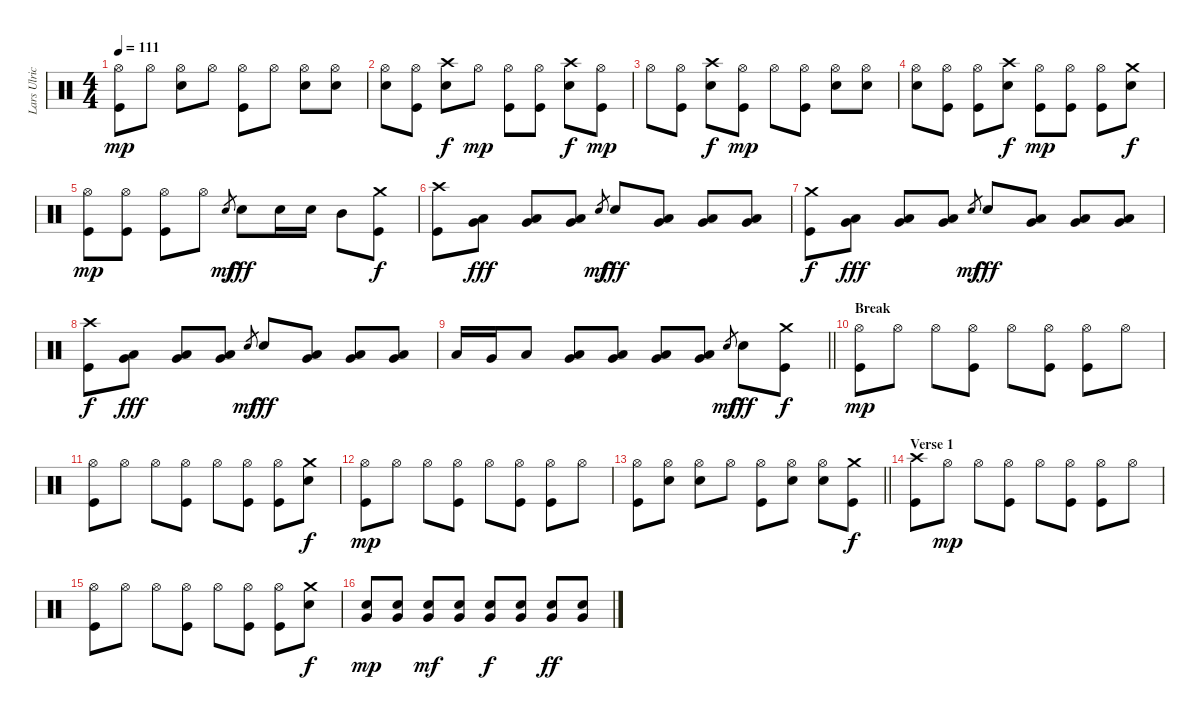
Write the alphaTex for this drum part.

\track ("Lars Ulrich (Drums)" "Lars Ulric") {instrument percussion}
\staff {score}
\articulation defaults
\ts (4 4)
\tempo 111
\clef neutral
\ks c
("Hi-Hat (open)" "Kick (hit)").8{dy mp} "Hi-Hat (open)".8 ("Hi-Hat (open)" "Snare (hit) 2").8 "Hi-Hat (open)".8 ("Hi-Hat (open)" "Kick (hit)").8 "Hi-Hat (open)".8 ("Hi-Hat (open)" "Snare (hit) 2").8 ("Hi-Hat (open)" "Snare (hit) 2").8 |
("Hi-Hat (open)" "Snare (hit) 2").8 ("Hi-Hat (open)" "Kick (hit)").8 ("Crash high (hit)" "Snare (hit) 2").8{dy f} "Hi-Hat (open)".8{dy mp} ("Hi-Hat (open)" "Kick (hit)").8 ("Hi-Hat (open)" "Kick (hit)").8 ("Crash high (hit)" "Snare (hit) 2").8{dy f} ("Hi-Hat (open)" "Kick (hit)").8{dy mp} |
"Hi-Hat (open)".8 ("Hi-Hat (open)" "Kick (hit)").8 ("Crash high (hit)" "Snare (hit) 2").8{dy f} ("Hi-Hat (open)" "Kick (hit)").8{dy mp} "Hi-Hat (open)".8 ("Hi-Hat (open)" "Kick (hit)").8 ("Hi-Hat (open)" "Snare (hit) 2").8 ("Hi-Hat (open)" "Snare (hit) 2").8 |
("Hi-Hat (open)" "Snare (hit) 2").8 ("Hi-Hat (open)" "Kick (hit)").8 ("Hi-Hat (open)" "Kick (hit)").8 ("Crash high (hit)" "Snare (hit) 2").8{dy f} ("Hi-Hat (open)" "Kick (hit)").8{dy mp} ("Hi-Hat (open)" "Kick (hit)").8 ("Hi-Hat (open)" "Kick (hit)").8 ("Crash medium (hit)" "Snare (hit) 2").8{dy f} |
("Hi-Hat (open)" "Kick (hit)").8{dy mp} ("Hi-Hat (open)" "Kick (hit)").8 ("Hi-Hat (open)" "Kick (hit)").8 "Hi-Hat (open)".8 "Snare (hit)".8{gr dy mf} "Snare (hit) 2".8{dy fff} "Snare (hit) 2".16 "Snare (hit) 2".16 "Mid Tom (hit)".8 ("Crash medium (hit)" "Kick (hit)").8{dy f} |
("Crash high (hit)" "Kick (hit)").8 ("Low Tom (hit)" "Very Low Tom (hit)").8{dy fff} ("Low Tom (hit)" "Very Low Tom (hit)").8 ("Low Tom (hit)" "Very Low Tom (hit)").8 "Snare (hit)".8{gr dy mf} "Snare (hit) 2".8{dy fff} ("Low Tom (hit)" "Very Low Tom (hit)").8 ("Low Tom (hit)" "Very Low Tom (hit)").8 ("Very Low Tom (hit)" "Low Floor Tom (hit)").8 |
("Crash medium (hit)" "Kick (hit)").8{dy f} ("Low Tom (hit)" "Very Low Tom (hit)").8{dy fff} ("Low Tom (hit)" "Very Low Tom (hit)").8 ("Low Tom (hit)" "Very Low Tom (hit)").8 "Snare (hit)".8{gr dy mf} "Snare (hit) 2".8{dy fff} ("Low Tom (hit)" "Very Low Tom (hit)").8 ("Low Tom (hit)" "Very Low Tom (hit)").8 ("Very Low Tom (hit)" "Low Floor Tom (hit)").8 |
("Crash high (hit)" "Kick (hit)").8{dy f} ("Low Tom (hit)" "Very Low Tom (hit)").8{dy fff} ("Low Tom (hit)" "Very Low Tom (hit)").8 ("Low Tom (hit)" "Very Low Tom (hit)").8 "Snare (hit)".8{gr dy mf} "Snare (hit) 2".8{dy fff} ("Low Tom (hit)" "Very Low Tom (hit)").8 ("Low Tom (hit)" "Very Low Tom (hit)").8 ("Very Low Tom (hit)" "Low Floor Tom (hit)").8 |
\barLineRight lightlight "Low Tom (hit)".16 "Very Low Tom (hit)".16 "Low Floor Tom (hit)".8
("Very Low Tom (hit)" "Low Floor Tom (hit)").8 ("Very Low Tom (hit)" "Low Floor Tom (hit)").8 ("Very Low Tom (hit)" "Low Floor Tom (hit)").8 ("Very Low Tom (hit)" "Low Floor Tom (hit)").8 "Snare (hit)".8{gr dy mf} "Snare (hit) 2".8{dy fff} ("Crash medium (hit)" "Kick (hit)").8{dy f} |
\section ("" "Break")
("Hi-Hat (open)" "Kick (hit)").8{dy mp} "Hi-Hat (open)".8 "Hi-Hat (open)".8 ("Hi-Hat (open)" "Kick (hit)").8 "Hi-Hat (open)".8 ("Hi-Hat (open)" "Kick (hit)").8 ("Hi-Hat (open)" "Kick (hit)").8 "Hi-Hat (open)".8 |
("Hi-Hat (open)" "Kick (hit)").8 "Hi-Hat (open)".8 "Hi-Hat (open)".8 ("Hi-Hat (open)" "Kick (hit)").8 "Hi-Hat (open)".8 ("Hi-Hat (open)" "Kick (hit)").8 ("Hi-Hat (open)" "Kick (hit)").8 ("Crash medium (hit)" "Snare (hit) 2").8{dy f} |
("Hi-Hat (open)" "Kick (hit)").8{dy mp} "Hi-Hat (open)".8 "Hi-Hat (open)".8 ("Hi-Hat (open)" "Kick (hit)").8 "Hi-Hat (open)".8 ("Hi-Hat (open)" "Kick (hit)").8 ("Hi-Hat (open)" "Kick (hit)").8 "Hi-Hat (open)".8 |
\barLineRight lightlight
("Hi-Hat (open)" "Kick (hit)").8 ("Hi-Hat (open)" "Snare (hit) 2").8 ("Hi-Hat (open)" "Snare (hit) 2").8 "Hi-Hat (open)".8 ("Hi-Hat (open)" "Kick (hit)").8 ("Hi-Hat (open)" "Snare (hit) 2").8 ("Hi-Hat (open)" "Snare (hit) 2").8 ("Crash medium (hit)" "Kick (hit)").8{dy f} |
\section ("" "Verse 1")
("Crash high (hit)" "Kick (hit)").8 "Hi-Hat (open)".8{dy mp} "Hi-Hat (open)".8 ("Hi-Hat (open)" "Kick (hit)").8 "Hi-Hat (open)".8 ("Hi-Hat (open)" "Kick (hit)").8 ("Hi-Hat (open)" "Kick (hit)").8 "Hi-Hat (open)".8 |
("Hi-Hat (open)" "Kick (hit)").8 "Hi-Hat (open)".8 "Hi-Hat (open)".8 ("Hi-Hat (open)" "Kick (hit)").8 "Hi-Hat (open)".8 ("Hi-Hat (open)" "Kick (hit)").8 ("Hi-Hat (open)" "Kick (hit)").8 ("Crash medium (hit)" "Snare (hit) 2").8{dy f} |
("Very Low Tom (hit)" "Snare (hit) 2").8{dy mp} ("Very Low Tom (hit)" "Snare (hit) 2").8 ("Very Low Tom (hit)" "Snare (hit) 2").8{dy mf} ("Very Low Tom (hit)" "Snare (hit) 2").8 ("Very Low Tom (hit)" "Snare (hit) 2").8{dy f} ("Very Low Tom (hit)" "Snare (hit) 2").8 ("Very Low Tom (hit)" "Snare (hit) 2").8{dy ff} ("Very Low Tom (hit)" "Snare (hit) 2").8
